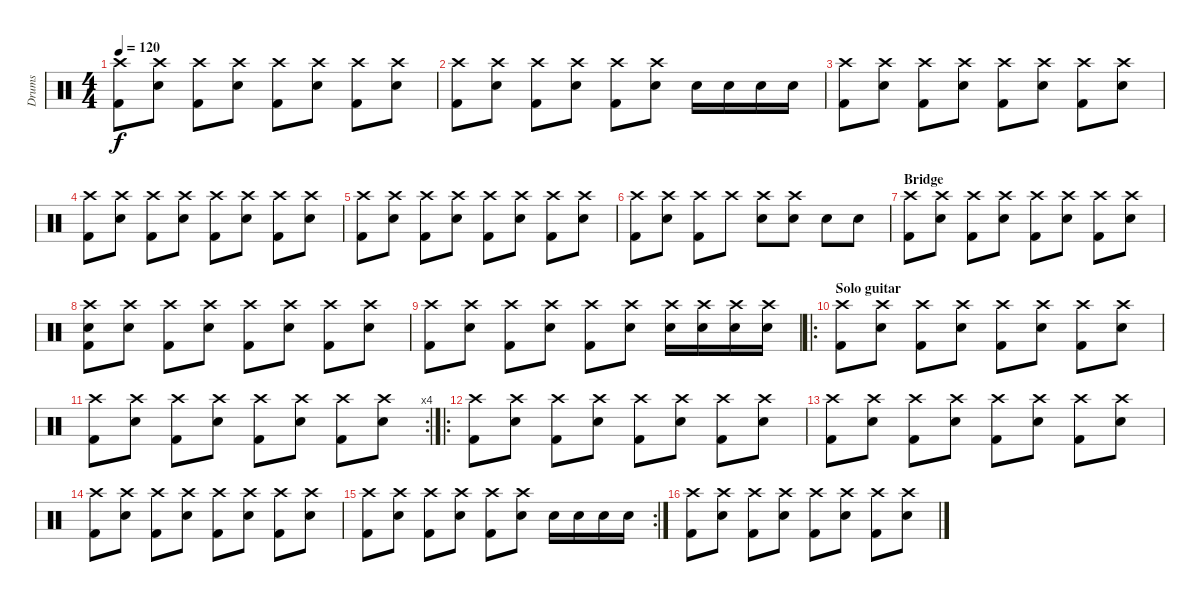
\track ("Drums" "Drums") {instrument percussion}
\staff {score}
\articulation defaults
\ts (4 4)
\tempo 120
\clef neutral
\ks c
("Crash high (hit)" "Kick (hit) 2").8{dy f} ("Crash high (hit)" "Electric Snare (hit)").8 ("Crash high (hit)" "Kick (hit) 2").8 ("Crash high (hit)" "Electric Snare (hit)").8 ("Crash high (hit)" "Kick (hit) 2").8 ("Crash high (hit)" "Electric Snare (hit)").8 ("Crash high (hit)" "Kick (hit) 2").8 ("Crash high (hit)" "Electric Snare (hit)").8 |
("Crash high (hit)" "Kick (hit) 2").8 ("Crash high (hit)" "Electric Snare (hit)").8 ("Crash high (hit)" "Kick (hit) 2").8 ("Crash high (hit)" "Electric Snare (hit)").8 ("Crash high (hit)" "Kick (hit) 2").8 ("Crash high (hit)" "Electric Snare (hit)").8 "Electric Snare (hit)".16 "Electric Snare (hit)".16 "Electric Snare (hit)".16 "Electric Snare (hit)".16 |
("Crash high (hit)" "Kick (hit) 2").8 ("Crash high (hit)" "Electric Snare (hit)").8 ("Crash high (hit)" "Kick (hit) 2").8 ("Crash high (hit)" "Electric Snare (hit)").8 ("Crash high (hit)" "Kick (hit) 2").8 ("Crash high (hit)" "Electric Snare (hit)").8 ("Crash high (hit)" "Kick (hit) 2").8 ("Crash high (hit)" "Electric Snare (hit)").8 |
("Crash high (hit)" "Kick (hit) 2").8 ("Crash high (hit)" "Electric Snare (hit)").8 ("Crash high (hit)" "Kick (hit) 2").8 ("Crash high (hit)" "Electric Snare (hit)").8 ("Crash high (hit)" "Kick (hit) 2").8 ("Crash high (hit)" "Electric Snare (hit)").8 ("Crash high (hit)" "Kick (hit) 2").8 ("Crash high (hit)" "Electric Snare (hit)").8 |
("Crash high (hit)" "Kick (hit) 2").8 ("Crash high (hit)" "Electric Snare (hit)").8 ("Crash high (hit)" "Kick (hit) 2").8 ("Crash high (hit)" "Electric Snare (hit)").8 ("Crash high (hit)" "Kick (hit) 2").8 ("Crash high (hit)" "Electric Snare (hit)").8 ("Crash high (hit)" "Kick (hit) 2").8 ("Crash high (hit)" "Electric Snare (hit)").8 |
("Crash high (hit)" "Kick (hit) 2").8 ("Crash high (hit)" "Electric Snare (hit)").8 ("Crash high (hit)" "Kick (hit) 2").8 "Crash high (hit)".8 ("Crash high (hit)" "Electric Snare (hit)").8 ("Crash high (hit)" "Electric Snare (hit)").8 "Electric Snare (hit)".8 "Electric Snare (hit)".8 |
\section ("" "Bridge")
("Crash high (hit)" "Kick (hit) 2").8 ("Crash high (hit)" "Electric Snare (hit)").8 ("Crash high (hit)" "Kick (hit) 2").8 ("Crash high (hit)" "Electric Snare (hit)").8 ("Crash high (hit)" "Kick (hit) 2").8 ("Crash high (hit)" "Electric Snare (hit)").8 ("Crash high (hit)" "Kick (hit) 2").8 ("Crash high (hit)" "Electric Snare (hit)").8 |
("Crash high (hit)" "Kick (hit) 2" "Snare (hit)").8 ("Crash high (hit)" "Electric Snare (hit)").8 ("Crash high (hit)" "Kick (hit) 2").8 ("Crash high (hit)" "Electric Snare (hit)").8 ("Crash high (hit)" "Kick (hit) 2").8 ("Crash high (hit)" "Electric Snare (hit)").8 ("Crash high (hit)" "Kick (hit) 2").8 ("Crash high (hit)" "Electric Snare (hit)").8 |
("Crash high (hit)" "Kick (hit) 2").8 ("Crash high (hit)" "Electric Snare (hit)").8 ("Crash high (hit)" "Kick (hit) 2").8 ("Crash high (hit)" "Electric Snare (hit)").8 ("Crash high (hit)" "Kick (hit) 2").8 ("Crash high (hit)" "Electric Snare (hit)").8 ("Crash high (hit)" "Electric Snare (hit)").16 ("Crash high (hit)" "Electric Snare (hit)").16 ("Crash high (hit)" "Electric Snare (hit)").16 ("Crash high (hit)" "Electric Snare (hit)").16 |
\ro
\section ("" "Solo guitar")
("Crash high (hit)" "Kick (hit) 2").8 ("Crash high (hit)" "Electric Snare (hit)").8 ("Crash high (hit)" "Kick (hit) 2").8 ("Crash high (hit)" "Electric Snare (hit)").8 ("Crash high (hit)" "Kick (hit) 2").8 ("Crash high (hit)" "Electric Snare (hit)").8 ("Crash high (hit)" "Kick (hit) 2").8 ("Crash high (hit)" "Electric Snare (hit)").8 |
\rc 4
("Crash high (hit)" "Kick (hit) 2").8 ("Crash high (hit)" "Electric Snare (hit)").8 ("Crash high (hit)" "Kick (hit) 2").8 ("Crash high (hit)" "Electric Snare (hit)").8 ("Crash high (hit)" "Kick (hit) 2").8 ("Crash high (hit)" "Electric Snare (hit)").8 ("Crash high (hit)" "Kick (hit) 2").8 ("Crash high (hit)" "Electric Snare (hit)").8 |
\ro
("Crash high (hit)" "Kick (hit) 2").8 ("Crash high (hit)" "Electric Snare (hit)").8 ("Crash high (hit)" "Kick (hit) 2").8 ("Crash high (hit)" "Electric Snare (hit)").8 ("Crash high (hit)" "Kick (hit) 2").8 ("Crash high (hit)" "Electric Snare (hit)").8 ("Crash high (hit)" "Kick (hit) 2").8 ("Crash high (hit)" "Electric Snare (hit)").8 |
("Crash high (hit)" "Kick (hit) 2").8 ("Crash high (hit)" "Electric Snare (hit)").8 ("Crash high (hit)" "Kick (hit) 2").8 ("Crash high (hit)" "Electric Snare (hit)").8 ("Crash high (hit)" "Kick (hit) 2").8 ("Crash high (hit)" "Electric Snare (hit)").8 ("Crash high (hit)" "Kick (hit) 2").8 ("Crash high (hit)" "Electric Snare (hit)").8 |
("Crash high (hit)" "Kick (hit) 2").8 ("Crash high (hit)" "Electric Snare (hit)").8 ("Crash high (hit)" "Kick (hit) 2").8 ("Crash high (hit)" "Electric Snare (hit)").8 ("Crash high (hit)" "Kick (hit) 2").8 ("Crash high (hit)" "Electric Snare (hit)").8 ("Crash high (hit)" "Kick (hit) 2").8 ("Crash high (hit)" "Electric Snare (hit)").8 |
\rc 2
("Crash high (hit)" "Kick (hit) 2").8 ("Crash high (hit)" "Electric Snare (hit)").8 ("Crash high (hit)" "Kick (hit) 2").8 ("Crash high (hit)" "Electric Snare (hit)").8 ("Crash high (hit)" "Kick (hit) 2").8 ("Crash high (hit)" "Electric Snare (hit)").8 "Electric Snare (hit)".16 "Electric Snare (hit)".16 "Electric Snare (hit)".16 "Electric Snare (hit)".16 |
("Crash high (hit)" "Kick (hit) 2").8 ("Crash high (hit)" "Electric Snare (hit)").8 ("Crash high (hit)" "Kick (hit) 2").8 ("Crash high (hit)" "Electric Snare (hit)").8 ("Crash high (hit)" "Kick (hit) 2").8 ("Crash high (hit)" "Electric Snare (hit)").8 ("Crash high (hit)" "Kick (hit) 2").8 ("Crash high (hit)" "Electric Snare (hit)").8
